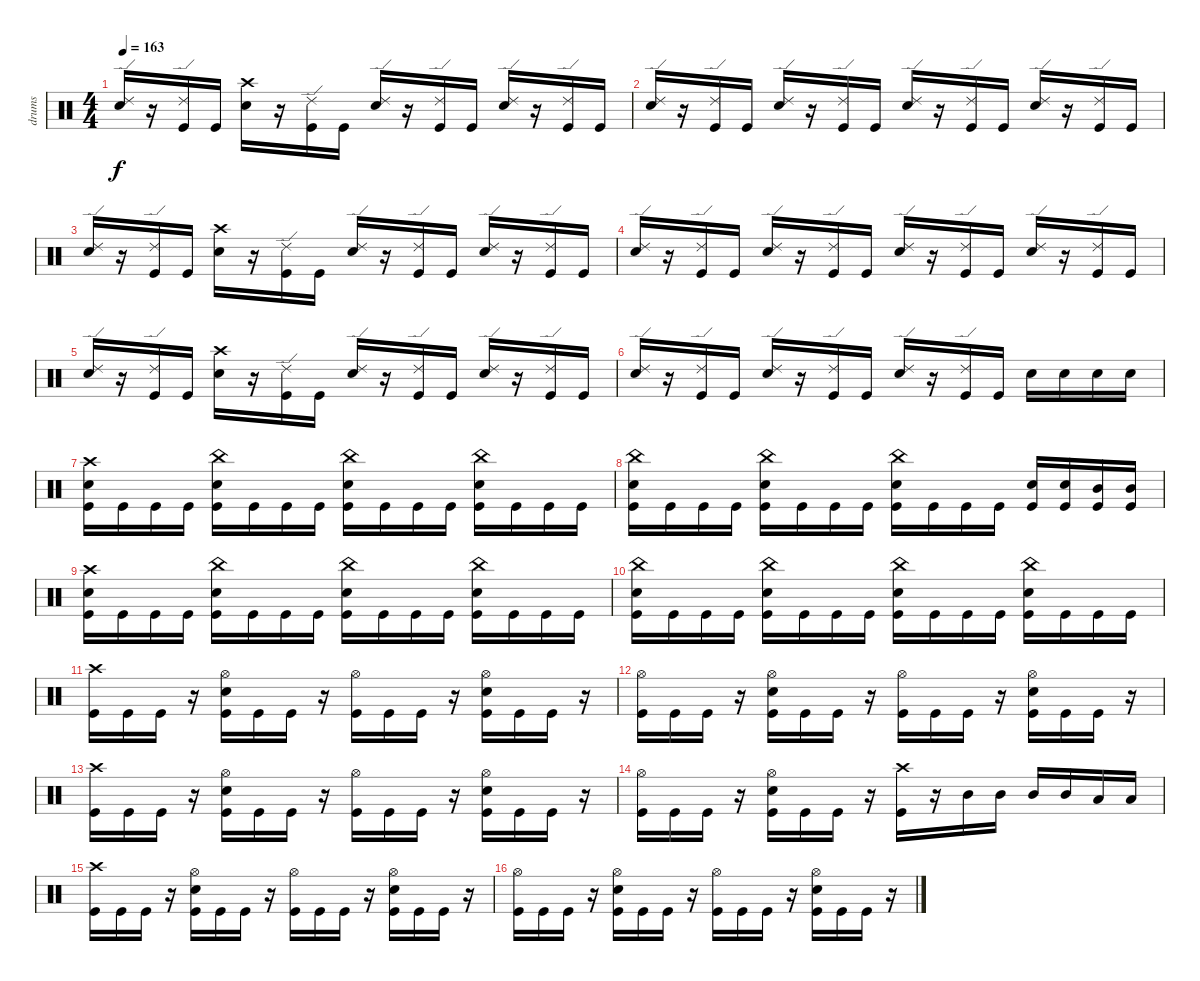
\track ("drums" "drums") {instrument percussion}
\staff {score}
\articulation defaults
\ts (4 4)
\tempo 163
\clef neutral
\ks c
("Ride (edge) 2" "Snare (hit) 2").16{dy f} r.16 ("Ride (edge) 2" "Kick (hit)").16 "Kick (hit)".16 ("Crash high (hit)" "Snare (hit) 2").16 r.16 ("Ride (edge) 2" "Kick (hit)").16 "Kick (hit)".16 ("Ride (edge) 2" "Snare (hit) 2").16 r.16 ("Ride (edge) 2" "Kick (hit)").16 "Kick (hit)".16 ("Ride (edge) 2" "Snare (hit) 2").16 r.16 ("Ride (edge) 2" "Kick (hit)").16 "Kick (hit)".16 |
("Ride (edge) 2" "Snare (hit) 2").16 r.16 ("Ride (edge) 2" "Kick (hit)").16 "Kick (hit)".16 ("Ride (edge) 2" "Snare (hit) 2").16 r.16 ("Ride (edge) 2" "Kick (hit)").16 "Kick (hit)".16 ("Ride (edge) 2" "Snare (hit) 2").16 r.16 ("Ride (edge) 2" "Kick (hit)").16 "Kick (hit)".16 ("Ride (edge) 2" "Snare (hit) 2").16 r.16 ("Ride (edge) 2" "Kick (hit)").16 "Kick (hit)".16 |
("Ride (edge) 2" "Snare (hit) 2").16 r.16 ("Ride (edge) 2" "Kick (hit)").16 "Kick (hit)".16 ("Crash high (hit)" "Snare (hit) 2").16 r.16 ("Ride (edge) 2" "Kick (hit)").16 "Kick (hit)".16 ("Ride (edge) 2" "Snare (hit) 2").16 r.16 ("Ride (edge) 2" "Kick (hit)").16 "Kick (hit)".16 ("Ride (edge) 2" "Snare (hit) 2").16 r.16 ("Ride (edge) 2" "Kick (hit)").16 "Kick (hit)".16 |
("Ride (edge) 2" "Snare (hit) 2").16 r.16 ("Ride (edge) 2" "Kick (hit)").16 "Kick (hit)".16 ("Ride (edge) 2" "Snare (hit) 2").16 r.16 ("Ride (edge) 2" "Kick (hit)").16 "Kick (hit)".16 ("Ride (edge) 2" "Snare (hit) 2").16 r.16 ("Ride (edge) 2" "Kick (hit)").16 "Kick (hit)".16 ("Ride (edge) 2" "Snare (hit) 2").16 r.16 ("Ride (edge) 2" "Kick (hit)").16 "Kick (hit)".16 |
("Ride (edge) 2" "Snare (hit) 2").16 r.16 ("Ride (edge) 2" "Kick (hit)").16 "Kick (hit)".16 ("Crash high (hit)" "Snare (hit) 2").16 r.16 ("Ride (edge) 2" "Kick (hit)").16 "Kick (hit)".16 ("Ride (edge) 2" "Snare (hit) 2").16 r.16 ("Ride (edge) 2" "Kick (hit)").16 "Kick (hit)".16 ("Ride (edge) 2" "Snare (hit) 2").16 r.16 ("Ride (edge) 2" "Kick (hit)").16 "Kick (hit)".16 |
("Ride (edge) 2" "Snare (hit) 2").16 r.16 ("Ride (edge) 2" "Kick (hit)").16 "Kick (hit)".16 ("Ride (edge) 2" "Snare (hit) 2").16 r.16 ("Ride (edge) 2" "Kick (hit)").16 "Kick (hit)".16 ("Ride (edge) 2" "Snare (hit) 2").16 r.16 ("Ride (edge) 2" "Kick (hit)").16 "Kick (hit)".16 "Snare (hit) 2".16 "Snare (hit) 2".16 "Snare (hit) 2".16 "Snare (hit) 2".16 |
("Kick (hit)" "Crash high (hit)" "Snare (hit) 2").16 "Kick (hit)".16 "Kick (hit)".16 "Kick (hit)".16 ("China (hit)" "Kick (hit)" "Snare (hit) 2").16 "Kick (hit)".16 "Kick (hit)".16 "Kick (hit)".16 ("China (hit)" "Kick (hit)" "Snare (hit) 2").16 "Kick (hit)".16 "Kick (hit)".16 "Kick (hit)".16 ("China (hit)" "Kick (hit)" "Snare (hit) 2").16 "Kick (hit)".16 "Kick (hit)".16 "Kick (hit)".16 |
("China (hit)" "Kick (hit)" "Snare (hit) 2").16 "Kick (hit)".16 "Kick (hit)".16 "Kick (hit)".16 ("China (hit)" "Kick (hit)" "Snare (hit) 2").16 "Kick (hit)".16 "Kick (hit)".16 "Kick (hit)".16 ("China (hit)" "Kick (hit)" "Snare (hit) 2").16 "Kick (hit)".16 "Kick (hit)".16 "Kick (hit)".16 ("Kick (hit)" "Snare (hit) 2").16 ("Kick (hit)" "Snare (hit) 2").16 ("Mid Tom (hit)" "Kick (hit)").16 ("Mid Tom (hit)" "Kick (hit)").16 |
("Crash high (hit)" "Kick (hit)" "Snare (hit) 2").16 "Kick (hit)".16 "Kick (hit)".16 "Kick (hit)".16 ("Kick (hit)" "China (hit)" "Snare (hit) 2").16 "Kick (hit)".16 "Kick (hit)".16 "Kick (hit)".16 ("Kick (hit)" "China (hit)" "Snare (hit) 2").16 "Kick (hit)".16 "Kick (hit)".16 "Kick (hit)".16 ("Kick (hit)" "China (hit)" "Snare (hit) 2").16 "Kick (hit)".16 "Kick (hit)".16 "Kick (hit)".16 |
("China (hit)" "Kick (hit)" "Snare (hit) 2").16 "Kick (hit)".16 "Kick (hit)".16 "Kick (hit)".16 ("China (hit)" "Kick (hit)" "Snare (hit) 2").16 "Kick (hit)".16 "Kick (hit)".16 "Kick (hit)".16 ("China (hit)" "Kick (hit)" "Snare (hit) 2").16 "Kick (hit)".16 "Kick (hit)".16 "Kick (hit)".16 ("China (hit)" "Kick (hit)" "Snare (hit) 2").16 "Kick (hit)".16 "Kick (hit)".16 "Kick (hit)".16 |
("Crash high (hit)" "Kick (hit)").16 "Kick (hit)".16 "Kick (hit)".16 r.16 ("Kick (hit)" "Hi-Hat (open)" "Snare (hit) 2").16 "Kick (hit)".16 "Kick (hit)".16 r.16 ("Hi-Hat (open)" "Kick (hit)").16 "Kick (hit)".16 "Kick (hit)".16 r.16 ("Kick (hit)" "Hi-Hat (open)" "Snare (hit) 2").16 "Kick (hit)".16 "Kick (hit)".16 r.16 |
("Hi-Hat (open)" "Kick (hit)").16 "Kick (hit)".16 "Kick (hit)".16 r.16 ("Kick (hit)" "Hi-Hat (open)" "Snare (hit) 2").16 "Kick (hit)".16 "Kick (hit)".16 r.16 ("Hi-Hat (open)" "Kick (hit)").16 "Kick (hit)".16 "Kick (hit)".16 r.16 ("Kick (hit)" "Hi-Hat (open)" "Snare (hit) 2").16 "Kick (hit)".16 "Kick (hit)".16 r.16 |
("Crash high (hit)" "Kick (hit)").16 "Kick (hit)".16 "Kick (hit)".16 r.16 ("Hi-Hat (open)" "Snare (hit) 2" "Kick (hit)").16 "Kick (hit)".16 "Kick (hit)".16 r.16 ("Hi-Hat (open)" "Kick (hit)").16 "Kick (hit)".16 "Kick (hit)".16 r.16 ("Hi-Hat (open)" "Snare (hit) 2" "Kick (hit)").16 "Kick (hit)".16 "Kick (hit)".16 r.16 |
("Hi-Hat (open)" "Kick (hit)").16 "Kick (hit)".16 "Kick (hit)".16 r.16 ("Hi-Hat (open)" "Snare (hit) 2" "Kick (hit)").16 "Kick (hit)".16 "Kick (hit)".16 r.16 ("Crash high (hit)" "Kick (hit)").16 r.16 "Mid Tom (hit)".16 "Mid Tom (hit)".16 "Mid Tom (hit)".16 "Mid Tom (hit)".16 "Low Tom (hit)".16 "Low Tom (hit)".16 |
("Crash high (hit)" "Kick (hit)").16 "Kick (hit)".16 "Kick (hit)".16 r.16 ("Kick (hit)" "Hi-Hat (open)" "Snare (hit) 2").16 "Kick (hit)".16 "Kick (hit)".16 r.16 ("Hi-Hat (open)" "Kick (hit)").16 "Kick (hit)".16 "Kick (hit)".16 r.16 ("Kick (hit)" "Hi-Hat (open)" "Snare (hit) 2").16 "Kick (hit)".16 "Kick (hit)".16 r.16 |
("Hi-Hat (open)" "Kick (hit)").16 "Kick (hit)".16 "Kick (hit)".16 r.16 ("Kick (hit)" "Hi-Hat (open)" "Snare (hit) 2").16 "Kick (hit)".16 "Kick (hit)".16 r.16 ("Hi-Hat (open)" "Kick (hit)").16 "Kick (hit)".16 "Kick (hit)".16 r.16 ("Kick (hit)" "Hi-Hat (open)" "Snare (hit) 2").16 "Kick (hit)".16 "Kick (hit)".16 r.16
